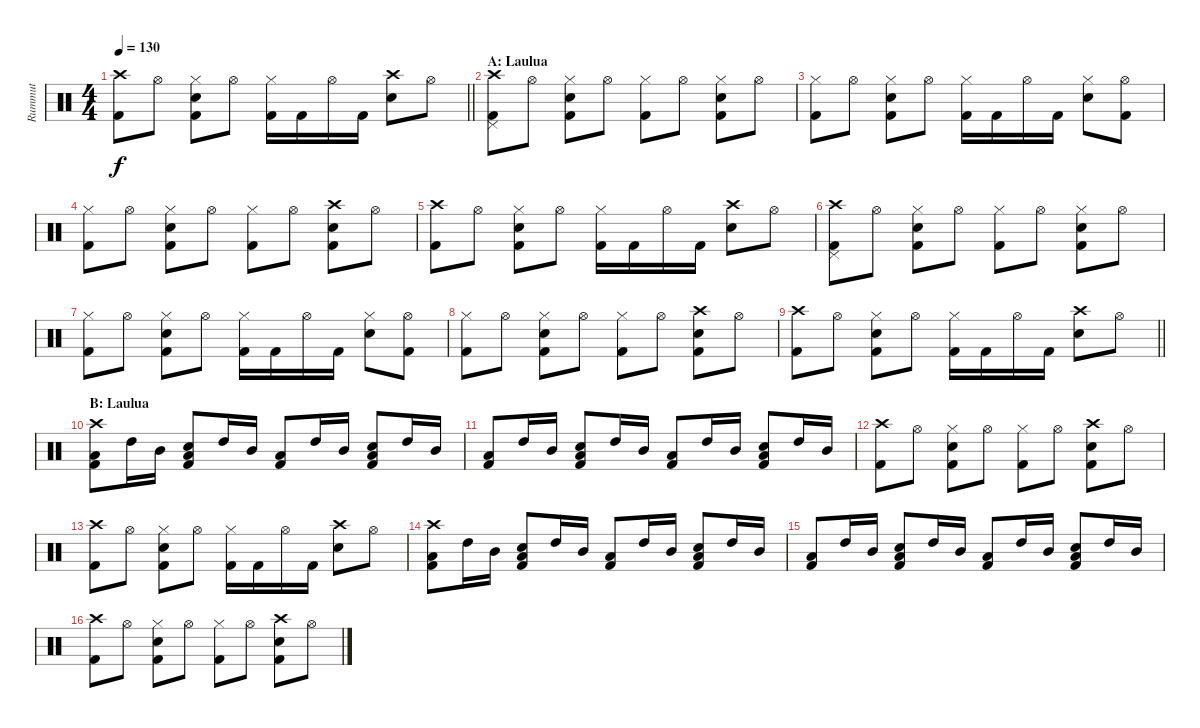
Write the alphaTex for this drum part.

\track ("Rummut" "Rummut") {instrument percussion}
\staff {score}
\articulation defaults
\ts (4 4)
\tempo 130
\clef neutral
\barLineRight lightlight
\ks c
("Crash high (hit)" "Kick (hit) 2").8{dy f} "Hi-Hat (open)".8 ("Hi-Hat (closed)" "Snare (hit) 2" "Kick (hit) 2").8 "Hi-Hat (open)".8 ("Hi-Hat (closed)" "Kick (hit) 2").16 "Kick (hit) 2".16 "Hi-Hat (open)".16 "Kick (hit) 2".16 ("Crash high (hit)" "Snare (hit) 2").8 "Hi-Hat (open)".8 |
\section ("" "A: Laulua")
("Crash high (hit)" "Pedal Hi-Hat (hit)" "Kick (hit) 2").8 "Hi-Hat (open)".8 ("Hi-Hat (closed)" "Snare (hit) 2" "Kick (hit) 2").8 "Hi-Hat (open)".8 ("Hi-Hat (closed)" "Kick (hit) 2").8 "Hi-Hat (open)".8 ("Hi-Hat (closed)" "Snare (hit) 2" "Kick (hit) 2").8 "Hi-Hat (open)".8 |
("Hi-Hat (closed)" "Kick (hit) 2").8 "Hi-Hat (open)".8 ("Hi-Hat (closed)" "Snare (hit) 2" "Kick (hit) 2").8 "Hi-Hat (open)".8 ("Hi-Hat (closed)" "Kick (hit) 2").16 "Kick (hit) 2".16 "Hi-Hat (open)".16 "Kick (hit) 2".16 ("Hi-Hat (closed)" "Snare (hit) 2").8 ("Hi-Hat (open)" "Kick (hit) 2").8 |
("Hi-Hat (closed)" "Kick (hit) 2").8 "Hi-Hat (open)".8 ("Hi-Hat (closed)" "Snare (hit) 2" "Kick (hit) 2").8 "Hi-Hat (open)".8 ("Hi-Hat (closed)" "Kick (hit) 2").8 "Hi-Hat (open)".8 ("Crash high (hit)" "Snare (hit) 2" "Kick (hit) 2").8 "Hi-Hat (open)".8 |
("Crash high (hit)" "Kick (hit) 2").8 "Hi-Hat (open)".8 ("Hi-Hat (closed)" "Snare (hit) 2" "Kick (hit) 2").8 "Hi-Hat (open)".8 ("Hi-Hat (closed)" "Kick (hit) 2").16 "Kick (hit) 2".16 "Hi-Hat (open)".16 "Kick (hit) 2".16 ("Crash high (hit)" "Snare (hit) 2").8 "Hi-Hat (open)".8 |
("Crash high (hit)" "Pedal Hi-Hat (hit)" "Kick (hit) 2").8 "Hi-Hat (open)".8 ("Hi-Hat (closed)" "Snare (hit) 2" "Kick (hit) 2").8 "Hi-Hat (open)".8 ("Hi-Hat (closed)" "Kick (hit) 2").8 "Hi-Hat (open)".8 ("Hi-Hat (closed)" "Snare (hit) 2" "Kick (hit) 2").8 "Hi-Hat (open)".8 |
("Hi-Hat (closed)" "Kick (hit) 2").8 "Hi-Hat (open)".8 ("Hi-Hat (closed)" "Snare (hit) 2" "Kick (hit) 2").8 "Hi-Hat (open)".8 ("Hi-Hat (closed)" "Kick (hit) 2").16 "Kick (hit) 2".16 "Hi-Hat (open)".16 "Kick (hit) 2".16 ("Hi-Hat (closed)" "Snare (hit) 2").8 ("Hi-Hat (open)" "Kick (hit) 2").8 |
("Hi-Hat (closed)" "Kick (hit) 2").8 "Hi-Hat (open)".8 ("Hi-Hat (closed)" "Snare (hit) 2" "Kick (hit) 2").8 "Hi-Hat (open)".8 ("Hi-Hat (closed)" "Kick (hit) 2").8 "Hi-Hat (open)".8 ("Crash high (hit)" "Snare (hit) 2" "Kick (hit) 2").8 "Hi-Hat (open)".8 |
\barLineRight lightlight
("Crash high (hit)" "Kick (hit) 2").8 "Hi-Hat (open)".8 ("Hi-Hat (closed)" "Snare (hit) 2" "Kick (hit) 2").8 "Hi-Hat (open)".8 ("Hi-Hat (closed)" "Kick (hit) 2").16 "Kick (hit) 2".16 "Hi-Hat (open)".16 "Kick (hit) 2".16 ("Crash high (hit)" "Snare (hit) 2").8 "Hi-Hat (open)".8 |
\section ("" "B: Laulua")
("Crash high (hit)" "Low Tom (hit)" "Kick (hit) 2").8 "High Tom (hit)".16 "Mid Tom (hit)".16 ("Snare (hit) 2" "Low Tom (hit)" "Kick (hit) 2").8 "High Tom (hit)".16 "Mid Tom (hit)".16 ("Low Tom (hit)" "Kick (hit) 2").8 "High Tom (hit)".16 "Mid Tom (hit)".16 ("Snare (hit) 2" "Low Tom (hit)" "Kick (hit) 2").8 "High Tom (hit)".16 "Mid Tom (hit)".16 |
("Low Tom (hit)" "Kick (hit) 2").8 "High Tom (hit)".16 "Mid Tom (hit)".16 ("Snare (hit) 2" "Low Tom (hit)" "Kick (hit) 2").8 "High Tom (hit)".16 "Mid Tom (hit)".16 ("Low Tom (hit)" "Kick (hit) 2").8 "High Tom (hit)".16 "Mid Tom (hit)".16 ("Snare (hit) 2" "Low Tom (hit)" "Kick (hit) 2").8 "High Tom (hit)".16 "Mid Tom (hit)".16 |
("Crash high (hit)" "Kick (hit) 2").8 "Hi-Hat (open)".8 ("Hi-Hat (closed)" "Snare (hit) 2" "Kick (hit) 2").8 "Hi-Hat (open)".8 ("Hi-Hat (closed)" "Kick (hit) 2").8 "Hi-Hat (open)".8 ("Crash high (hit)" "Snare (hit) 2" "Kick (hit) 2").8 "Hi-Hat (open)".8 |
("Crash high (hit)" "Kick (hit) 2").8 "Hi-Hat (open)".8 ("Hi-Hat (closed)" "Snare (hit) 2" "Kick (hit) 2").8 "Hi-Hat (open)".8 ("Hi-Hat (closed)" "Kick (hit) 2").16 "Kick (hit) 2".16 "Hi-Hat (open)".16 "Kick (hit) 2".16 ("Crash high (hit)" "Snare (hit) 2").8 "Hi-Hat (open)".8 |
("Crash high (hit)" "Low Tom (hit)" "Kick (hit) 2").8 "High Tom (hit)".16 "Mid Tom (hit)".16 ("Snare (hit) 2" "Low Tom (hit)" "Kick (hit) 2").8 "High Tom (hit)".16 "Mid Tom (hit)".16 ("Low Tom (hit)" "Kick (hit) 2").8 "High Tom (hit)".16 "Mid Tom (hit)".16 ("Snare (hit) 2" "Low Tom (hit)" "Kick (hit) 2").8 "High Tom (hit)".16 "Mid Tom (hit)".16 |
("Low Tom (hit)" "Kick (hit) 2").8 "High Tom (hit)".16 "Mid Tom (hit)".16 ("Snare (hit) 2" "Low Tom (hit)" "Kick (hit) 2").8 "High Tom (hit)".16 "Mid Tom (hit)".16 ("Low Tom (hit)" "Kick (hit) 2").8 "High Tom (hit)".16 "Mid Tom (hit)".16 ("Snare (hit) 2" "Low Tom (hit)" "Kick (hit) 2").8 "High Tom (hit)".16 "Mid Tom (hit)".16 |
("Crash high (hit)" "Kick (hit) 2").8 "Hi-Hat (open)".8 ("Hi-Hat (closed)" "Snare (hit) 2" "Kick (hit) 2").8 "Hi-Hat (open)".8 ("Hi-Hat (closed)" "Kick (hit) 2").8 "Hi-Hat (open)".8 ("Crash high (hit)" "Snare (hit) 2" "Kick (hit) 2").8 "Hi-Hat (open)".8
